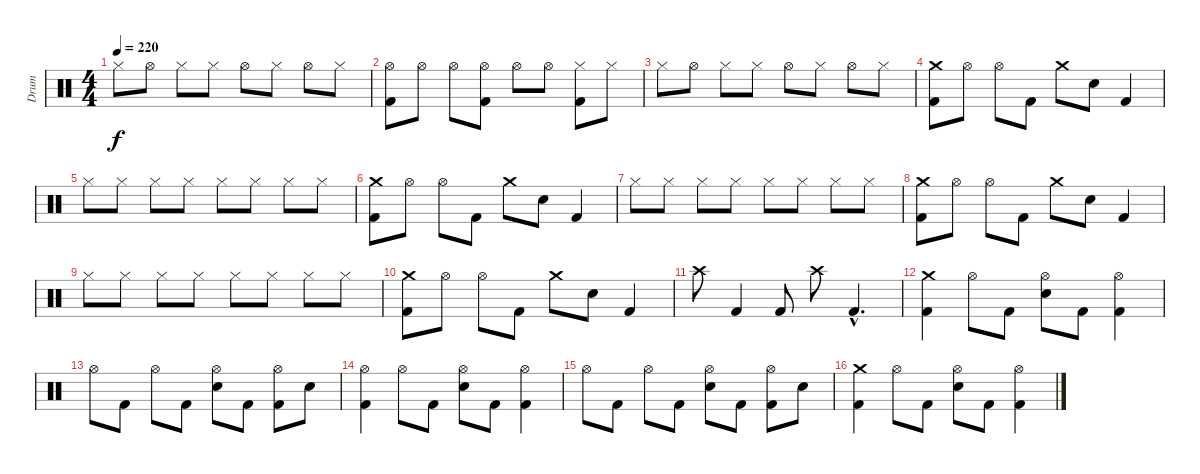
\track ("Drum" "Drum") {instrument percussion}
\staff {score}
\articulation defaults
\ts (4 4)
\tempo 220
\clef neutral
\ks c "Hi-Hat (closed)".8{dy f} "Hi-Hat (open)".8 "Hi-Hat (closed)".8 "Hi-Hat (closed)".8 "Hi-Hat (open)".8 "Hi-Hat (closed)".8 "Hi-Hat (open)".8 "Hi-Hat (closed)".8
|
("Hi-Hat (open)" "Kick (hit) 2").8 "Hi-Hat (open)".8 "Hi-Hat (open)".8 ("Hi-Hat (open)" "Kick (hit) 2").8 "Hi-Hat (open)".8 "Hi-Hat (open)".8 ("Hi-Hat (closed)" "Kick (hit) 2").8 "Hi-Hat (closed)".8 |
"Hi-Hat (closed)".8 "Hi-Hat (open)".8 "Hi-Hat (closed)".8 "Hi-Hat (closed)".8 "Hi-Hat (open)".8 "Hi-Hat (closed)".8 "Hi-Hat (open)".8 "Hi-Hat (closed)".8 |
("Crash medium (hit)" "Kick (hit) 2").8 "Hi-Hat (open)".8 "Hi-Hat (open)".8 "Kick (hit) 2".8 "Crash medium (hit)".8 "Electric Snare (hit)".8 "Kick (hit) 2".4 |
"Hi-Hat (closed)".8 "Hi-Hat (closed)".8 "Hi-Hat (closed)".8 "Hi-Hat (closed)".8 "Hi-Hat (closed)".8 "Hi-Hat (closed)".8 "Hi-Hat (closed)".8 "Hi-Hat (closed)".8 |
("Crash medium (hit)" "Kick (hit) 2").8 "Hi-Hat (open)".8 "Hi-Hat (open)".8 "Kick (hit) 2".8 "Crash medium (hit)".8 "Electric Snare (hit)".8 "Kick (hit) 2".4 |
"Hi-Hat (closed)".8 "Hi-Hat (closed)".8 "Hi-Hat (closed)".8 "Hi-Hat (closed)".8 "Hi-Hat (closed)".8 "Hi-Hat (closed)".8 "Hi-Hat (closed)".8 "Hi-Hat (closed)".8 |
("Crash medium (hit)" "Kick (hit) 2").8 "Hi-Hat (open)".8 "Hi-Hat (open)".8 "Kick (hit) 2".8 "Crash medium (hit)".8 "Electric Snare (hit)".8 "Kick (hit) 2".4 |
"Hi-Hat (closed)".8 "Hi-Hat (closed)".8 "Hi-Hat (closed)".8 "Hi-Hat (closed)".8 "Hi-Hat (closed)".8 "Hi-Hat (closed)".8 "Hi-Hat (closed)".8 "Hi-Hat (closed)".8 |
("Crash medium (hit)" "Kick (hit) 2").8 "Hi-Hat (open)".8 "Hi-Hat (open)".8 "Kick (hit) 2".8 "Crash medium (hit)".8 "Electric Snare (hit)".8 "Kick (hit) 2".4 |
"Crash high (hit)".8 "Kick (hit) 2".4 "Kick (hit) 2".8 "Crash high (hit)".8 "Kick (hit) 2"{hac}.4{d} |
("Crash medium (hit)" "Kick (hit) 2").4 "Hi-Hat (open)".8 "Kick (hit) 2".8 ("Hi-Hat (open)" "Electric Snare (hit)").8 "Kick (hit) 2".8 ("Hi-Hat (open)" "Kick (hit) 2").4 |
"Hi-Hat (open)".8 "Kick (hit) 2".8 "Hi-Hat (open)".8 "Kick (hit) 2".8 ("Hi-Hat (open)" "Electric Snare (hit)").8 "Kick (hit) 2".8 ("Hi-Hat (open)" "Kick (hit) 2").8 "Electric Snare (hit)".8 |
("Hi-Hat (open)" "Kick (hit) 2").4 "Hi-Hat (open)".8 "Kick (hit) 2".8 ("Hi-Hat (open)" "Electric Snare (hit)").8 "Kick (hit) 2".8 ("Hi-Hat (open)" "Kick (hit) 2").4 |
"Hi-Hat (open)".8 "Kick (hit) 2".8 "Hi-Hat (open)".8 "Kick (hit) 2".8 ("Hi-Hat (open)" "Electric Snare (hit)").8 "Kick (hit) 2".8 ("Hi-Hat (open)" "Kick (hit) 2").8 "Electric Snare (hit)".8 |
("Crash medium (hit)" "Kick (hit) 2").4 "Hi-Hat (open)".8 "Kick (hit) 2".8 ("Hi-Hat (open)" "Electric Snare (hit)").8 "Kick (hit) 2".8 ("Hi-Hat (open)" "Kick (hit) 2").4
